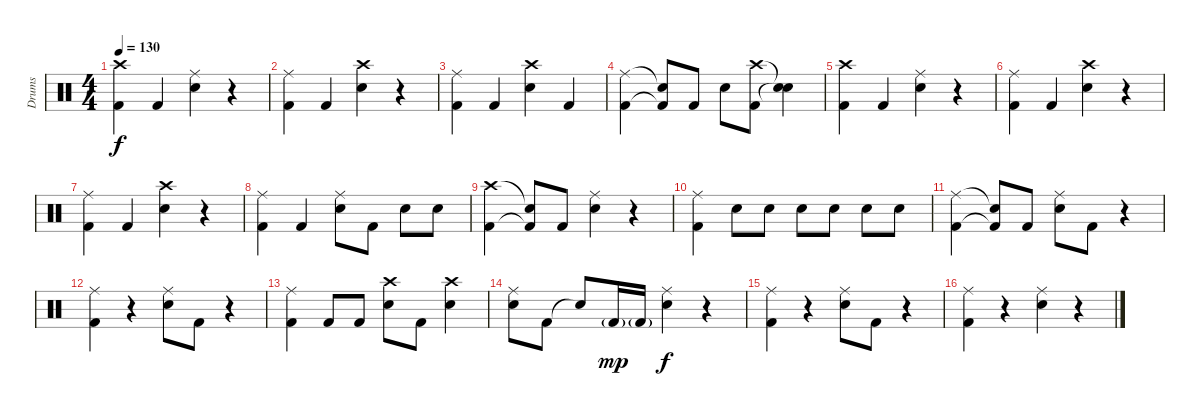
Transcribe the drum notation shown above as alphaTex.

\track ("Drums" "Drums") {instrument percussion}
\staff {score}
\articulation defaults
\ts (4 4)
\tempo 130
\clef neutral
\ks c
("Crash high (hit)" "Kick (hit) 2").4{dy f} "Kick (hit) 2".4 ("Ride (middle)" "Electric Snare (hit)").4 r.4 |
("Ride (middle)" "Kick (hit) 2").4 "Kick (hit) 2".4 ("Crash high (hit)" "Electric Snare (hit)").4 r.4 |
("Ride (middle)" "Kick (hit) 2").4 "Kick (hit) 2".4 ("Crash high (hit)" "Electric Snare (hit)").4 "Kick (hit) 2".4 |
("Ride (middle)" "Kick (hit) 2").4 ("Snare (hit)"{t} "Kick (hit) 2"{t}).8 "Kick (hit) 2".8 "Electric Snare (hit)".8 ("Crash high (hit)" "Kick (hit) 2").8 ("Snare (hit)"{t} "Snare (hit)"{t}).4 |
("Crash high (hit)" "Kick (hit) 2").4 "Kick (hit) 2".4 ("Ride (middle)" "Electric Snare (hit)").4 r.4 |
("Ride (middle)" "Kick (hit) 2").4 "Kick (hit) 2".4 ("Crash high (hit)" "Electric Snare (hit)").4 r.4 |
("Ride (middle)" "Kick (hit) 2").4 "Kick (hit) 2".4 ("Crash high (hit)" "Electric Snare (hit)").4 r.4 |
("Ride (middle)" "Kick (hit) 2").4 "Kick (hit) 2".4 ("Ride (middle)" "Electric Snare (hit)").8 "Kick (hit) 2".8 "Electric Snare (hit)".8 "Electric Snare (hit)".8 |
("Crash high (hit)" "Kick (hit) 2").4 ("Snare (hit)"{t} "Kick (hit) 2"{t}).8 "Kick (hit) 2".8 ("Ride (middle)" "Electric Snare (hit)").4 r.4 |
("Ride (middle)" "Kick (hit) 2").4 "Electric Snare (hit)".8 "Electric Snare (hit)".8 "Electric Snare (hit)".8 "Electric Snare (hit)".8 "Electric Snare (hit)".8 "Electric Snare (hit)".8 |
("Ride (middle)" "Kick (hit) 2").4 ("Snare (hit)"{t} "Kick (hit) 2"{t}).8 "Kick (hit) 2".8 ("Ride (middle)" "Electric Snare (hit)").8 "Kick (hit) 2".8 r.4 |
("Ride (middle)" "Kick (hit) 2").4 r.4 ("Ride (middle)" "Electric Snare (hit)").8 "Kick (hit) 2".8 r.4 |
("Ride (middle)" "Kick (hit) 2").4 "Kick (hit) 2".8 "Kick (hit) 2".8 ("Crash high (hit)" "Electric Snare (hit)").8 "Kick (hit) 2".8 ("Crash high (hit)" "Electric Snare (hit)").4 |
("Ride (middle)" "Electric Snare (hit)").8 "Kick (hit) 2".8 "Snare (hit)"{t}.8 "Kick (hit) 2"{g}.16{dy mp} "Kick (hit) 2"{g}.16 ("Ride (middle)" "Electric Snare (hit)").4{dy f} r.4 |
("Ride (middle)" "Kick (hit) 2").4 r.4 ("Ride (middle)" "Electric Snare (hit)").8 "Kick (hit) 2".8 r.4 |
("Ride (middle)" "Kick (hit) 2").4 r.4 ("Ride (middle)" "Electric Snare (hit)").4 r.4
